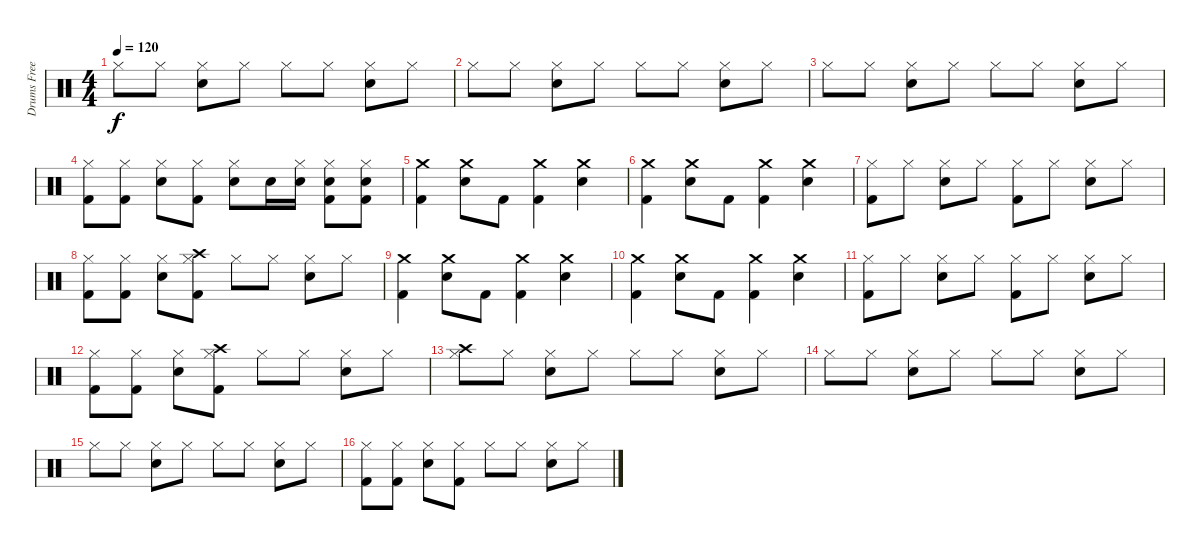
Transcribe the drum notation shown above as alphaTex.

\track ("Drums Freese" "Drums Free") {instrument percussion}
\staff {score}
\articulation defaults
\ts (4 4)
\tempo 120
\clef neutral
\ks c "Hi-Hat (closed)".8{dy f} "Hi-Hat (closed)".8
("Hi-Hat (closed)" "Snare (hit) 2").8 "Hi-Hat (closed)".8 "Hi-Hat (closed)".8 "Hi-Hat (closed)".8 ("Hi-Hat (closed)" "Snare (hit) 2").8 "Hi-Hat (closed)".8 |
"Hi-Hat (closed)".8 "Hi-Hat (closed)".8 ("Hi-Hat (closed)" "Snare (hit) 2").8 "Hi-Hat (closed)".8 "Hi-Hat (closed)".8 "Hi-Hat (closed)".8 ("Hi-Hat (closed)" "Snare (hit) 2").8 "Hi-Hat (closed)".8 |
"Hi-Hat (closed)".8 "Hi-Hat (closed)".8 ("Hi-Hat (closed)" "Snare (hit) 2").8 "Hi-Hat (closed)".8 "Hi-Hat (closed)".8 "Hi-Hat (closed)".8 ("Hi-Hat (closed)" "Snare (hit) 2").8 "Hi-Hat (closed)".8 |
("Hi-Hat (closed)" "Kick (hit) 2").8 ("Hi-Hat (closed)" "Kick (hit) 2").8 ("Hi-Hat (closed)" "Snare (hit) 2").8 ("Hi-Hat (closed)" "Kick (hit) 2").8 ("Hi-Hat (closed)" "Snare (hit) 2").8 "Snare (hit) 2".16 ("Hi-Hat (closed)" "Snare (hit) 2").16 ("Hi-Hat (closed)" "Snare (hit) 2" "Kick (hit) 2").8 ("Hi-Hat (closed)" "Snare (hit) 2" "Kick (hit) 2").8 |
("Crash medium (hit)" "Kick (hit) 2").4 ("Crash medium (hit)" "Snare (hit) 2").8 "Kick (hit) 2".8 ("Crash medium (hit)" "Kick (hit) 2").4 ("Crash medium (hit)" "Snare (hit) 2").4 |
("Crash medium (hit)" "Kick (hit) 2").4 ("Crash medium (hit)" "Snare (hit) 2").8 "Kick (hit) 2".8 ("Crash medium (hit)" "Kick (hit) 2").4 ("Crash medium (hit)" "Snare (hit) 2").4 |
("Hi-Hat (closed)" "Kick (hit) 2").8 "Hi-Hat (closed)".8 ("Hi-Hat (closed)" "Snare (hit) 2").8 "Hi-Hat (closed)".8 ("Hi-Hat (closed)" "Kick (hit) 2").8 "Hi-Hat (closed)".8 ("Hi-Hat (closed)" "Snare (hit) 2").8 "Hi-Hat (closed)".8 |
("Hi-Hat (closed)" "Kick (hit) 2").8 ("Hi-Hat (closed)" "Kick (hit) 2").8 ("Hi-Hat (closed)" "Snare (hit) 2").8 ("Hi-Hat (closed)" "Crash high (hit)" "Kick (hit) 2").8 "Hi-Hat (closed)".8 "Hi-Hat (closed)".8 ("Hi-Hat (closed)" "Snare (hit) 2").8 "Hi-Hat (closed)".8 |
("Crash medium (hit)" "Kick (hit) 2").4 ("Crash medium (hit)" "Snare (hit) 2").8 "Kick (hit) 2".8 ("Crash medium (hit)" "Kick (hit) 2").4 ("Crash medium (hit)" "Snare (hit) 2").4 |
("Crash medium (hit)" "Kick (hit) 2").4 ("Crash medium (hit)" "Snare (hit) 2").8 "Kick (hit) 2".8 ("Crash medium (hit)" "Kick (hit) 2").4 ("Crash medium (hit)" "Snare (hit) 2").4 |
("Hi-Hat (closed)" "Kick (hit) 2").8 "Hi-Hat (closed)".8 ("Hi-Hat (closed)" "Snare (hit) 2").8 "Hi-Hat (closed)".8 ("Hi-Hat (closed)" "Kick (hit) 2").8 "Hi-Hat (closed)".8 ("Hi-Hat (closed)" "Snare (hit) 2").8 "Hi-Hat (closed)".8 |
("Hi-Hat (closed)" "Kick (hit) 2").8 ("Hi-Hat (closed)" "Kick (hit) 2").8 ("Hi-Hat (closed)" "Snare (hit) 2").8 ("Hi-Hat (closed)" "Crash high (hit)" "Kick (hit) 2").8 "Hi-Hat (closed)".8 "Hi-Hat (closed)".8 ("Hi-Hat (closed)" "Snare (hit) 2").8 "Hi-Hat (closed)".8 |
("Hi-Hat (closed)" "Crash high (hit)").8 "Hi-Hat (closed)".8 ("Hi-Hat (closed)" "Snare (hit) 2").8 "Hi-Hat (closed)".8 "Hi-Hat (closed)".8 "Hi-Hat (closed)".8 ("Hi-Hat (closed)" "Snare (hit) 2").8 "Hi-Hat (closed)".8 |
"Hi-Hat (closed)".8 "Hi-Hat (closed)".8 ("Hi-Hat (closed)" "Snare (hit) 2").8 "Hi-Hat (closed)".8 "Hi-Hat (closed)".8 "Hi-Hat (closed)".8 ("Hi-Hat (closed)" "Snare (hit) 2").8 "Hi-Hat (closed)".8 |
"Hi-Hat (closed)".8 "Hi-Hat (closed)".8 ("Hi-Hat (closed)" "Snare (hit) 2").8 "Hi-Hat (closed)".8 "Hi-Hat (closed)".8 "Hi-Hat (closed)".8 ("Hi-Hat (closed)" "Snare (hit) 2").8 "Hi-Hat (closed)".8 |
("Hi-Hat (closed)" "Kick (hit) 2").8 ("Hi-Hat (closed)" "Kick (hit) 2").8 ("Hi-Hat (closed)" "Snare (hit) 2").8 ("Hi-Hat (closed)" "Kick (hit) 2").8 "Hi-Hat (closed)".8 "Hi-Hat (closed)".8 ("Hi-Hat (closed)" "Snare (hit) 2").8 "Hi-Hat (closed)".8
